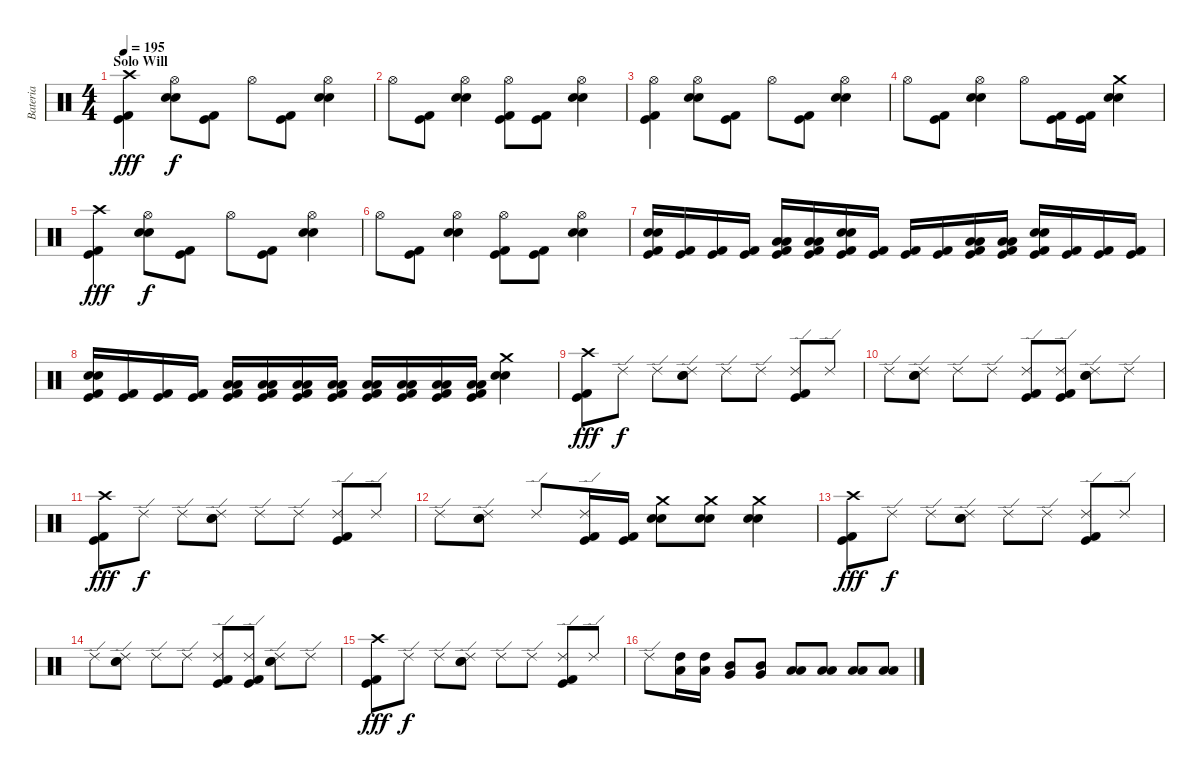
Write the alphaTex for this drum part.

\track ("Bateria" "Bateria") {instrument percussion}
\staff {score}
\articulation defaults
\ts (4 4)
\section ("" "Solo Will")
\tempo 195
\clef neutral
\ks c
("Crash high (hit)" "Kick (hit) 2" "Kick (hit)").4{dy fff} ("Hi-Hat (open)" "Electric Snare (hit)" "Snare (hit) 2").8{dy f} ("Kick (hit) 2" "Kick (hit)").8 "Hi-Hat (open)".8 ("Kick (hit) 2" "Kick (hit)").8 ("Hi-Hat (open)" "Electric Snare (hit)" "Snare (hit) 2").4 |
"Hi-Hat (open)".8 ("Kick (hit) 2" "Kick (hit)").8 ("Hi-Hat (open)" "Electric Snare (hit)" "Snare (hit) 2").4 ("Hi-Hat (open)" "Kick (hit) 2" "Kick (hit)").8 ("Kick (hit) 2" "Kick (hit)").8 ("Hi-Hat (open)" "Electric Snare (hit)" "Snare (hit) 2").4 |
("Hi-Hat (open)" "Kick (hit) 2" "Kick (hit)").4 ("Hi-Hat (open)" "Electric Snare (hit)" "Snare (hit) 2").8 ("Kick (hit) 2" "Kick (hit)").8 "Hi-Hat (open)".8 ("Kick (hit) 2" "Kick (hit)").8 ("Hi-Hat (open)" "Electric Snare (hit)" "Snare (hit) 2").4 |
"Hi-Hat (open)".8 ("Kick (hit) 2" "Kick (hit)").8 ("Hi-Hat (open)" "Electric Snare (hit)" "Snare (hit) 2").4 "Hi-Hat (open)".8 ("Kick (hit) 2" "Kick (hit)").16 ("Kick (hit) 2" "Kick (hit)").16 ("Crash medium (hit)" "Electric Snare (hit)" "Snare (hit) 2").4 |
("Crash high (hit)" "Kick (hit) 2" "Kick (hit)").4{dy fff} ("Hi-Hat (open)" "Electric Snare (hit)" "Snare (hit) 2").8{dy f} ("Kick (hit) 2" "Kick (hit)").8 "Hi-Hat (open)".8 ("Kick (hit) 2" "Kick (hit)").8 ("Hi-Hat (open)" "Electric Snare (hit)" "Snare (hit) 2").4 |
"Hi-Hat (open)".8 ("Kick (hit) 2" "Kick (hit)").8 ("Hi-Hat (open)" "Electric Snare (hit)" "Snare (hit) 2").4 ("Hi-Hat (open)" "Kick (hit) 2" "Kick (hit)").8 ("Kick (hit) 2" "Kick (hit)").8 ("Hi-Hat (open)" "Electric Snare (hit)" "Snare (hit) 2").4 |
("Electric Snare (hit)" "Snare (hit) 2" "Kick (hit) 2" "Kick (hit)").16 ("Kick (hit) 2" "Kick (hit)").16 ("Kick (hit) 2" "Kick (hit)").16 ("Kick (hit) 2" "Kick (hit)").16 ("Low Tom (hit)" "Low Floor Tom (hit)" "Kick (hit) 2" "Kick (hit)").16 ("Low Tom (hit)" "Low Floor Tom (hit)" "Kick (hit) 2" "Kick (hit)").16 ("Electric Snare (hit)" "Snare (hit) 2" "Kick (hit) 2" "Kick (hit)").16 ("Kick (hit) 2" "Kick (hit)").16 ("Kick (hit) 2" "Kick (hit)").16 ("Kick (hit) 2" "Kick (hit)").16 ("Low Tom (hit)" "Low Floor Tom (hit)" "Kick (hit) 2" "Kick (hit)").16 ("Low Tom (hit)" "Low Floor Tom (hit)" "Kick (hit) 2" "Kick (hit)").16 ("Electric Snare (hit)" "Snare (hit) 2" "Kick (hit) 2" "Kick (hit)").16 ("Kick (hit) 2" "Kick (hit)").16 ("Kick (hit) 2" "Kick (hit)").16 ("Kick (hit) 2" "Kick (hit)").16 |
("Electric Snare (hit)" "Snare (hit) 2" "Kick (hit) 2" "Kick (hit)").16 ("Kick (hit) 2" "Kick (hit)").16 ("Kick (hit) 2" "Kick (hit)").16 ("Kick (hit) 2" "Kick (hit)").16 ("Low Tom (hit)" "Low Floor Tom (hit)" "Kick (hit) 2" "Kick (hit)").16 ("Low Tom (hit)" "Low Floor Tom (hit)" "Kick (hit) 2" "Kick (hit)").16 ("Low Tom (hit)" "Low Floor Tom (hit)" "Kick (hit) 2" "Kick (hit)").16 ("Low Tom (hit)" "Low Floor Tom (hit)" "Kick (hit) 2" "Kick (hit)").16 ("Low Tom (hit)" "Low Floor Tom (hit)" "Kick (hit) 2" "Kick (hit)").16 ("Low Tom (hit)" "Low Floor Tom (hit)" "Kick (hit) 2" "Kick (hit)").16 ("Low Tom (hit)" "Low Floor Tom (hit)" "Kick (hit) 2" "Kick (hit)").16 ("Low Tom (hit)" "Low Floor Tom (hit)" "Kick (hit) 2" "Kick (hit)").16 ("Crash medium (hit)" "Electric Snare (hit)" "Snare (hit) 2").4 |
("Crash high (hit)" "Kick (hit) 2" "Kick (hit)").8{dy fff} "Ride (edge) 2".8{dy f} "Ride (edge) 2".8 ("Ride (edge) 2" "Electric Snare (hit)" "Snare (hit) 2").8 "Ride (edge) 2".8 "Ride (edge) 2".8 ("Ride (edge) 2" "Kick (hit) 2" "Kick (hit)").8 "Ride (edge) 2".8 |
"Ride (edge) 2".8 ("Ride (edge) 2" "Electric Snare (hit)" "Snare (hit) 2").8 "Ride (edge) 2".8 "Ride (edge) 2".8 ("Ride (edge) 2" "Kick (hit) 2" "Kick (hit)").8 ("Ride (edge) 2" "Kick (hit) 2" "Kick (hit)").8 ("Ride (edge) 2" "Electric Snare (hit)" "Snare (hit) 2").8 "Ride (edge) 2".8 |
("Crash high (hit)" "Kick (hit) 2" "Kick (hit)").8{dy fff} "Ride (edge) 2".8{dy f} "Ride (edge) 2".8 ("Ride (edge) 2" "Electric Snare (hit)" "Snare (hit) 2").8 "Ride (edge) 2".8 "Ride (edge) 2".8 ("Ride (edge) 2" "Kick (hit) 2" "Kick (hit)").8 "Ride (edge) 2".8 |
"Ride (edge) 2".8 ("Ride (edge) 2" "Electric Snare (hit)" "Snare (hit) 2").8 "Ride (edge) 2".8 ("Ride (edge) 2" "Kick (hit) 2" "Kick (hit)").16 ("Kick (hit) 2" "Kick (hit)").16 ("Crash medium (hit)" "Electric Snare (hit)" "Snare (hit) 2").8 ("Crash medium (hit)" "Electric Snare (hit)" "Snare (hit) 2").8 ("Crash medium (hit)" "Electric Snare (hit)" "Snare (hit) 2").4 |
("Crash high (hit)" "Kick (hit) 2" "Kick (hit)").8{dy fff} "Ride (edge) 2".8{dy f} "Ride (edge) 2".8 ("Ride (edge) 2" "Electric Snare (hit)" "Snare (hit) 2").8 "Ride (edge) 2".8 "Ride (edge) 2".8 ("Ride (edge) 2" "Kick (hit) 2" "Kick (hit)").8 "Ride (edge) 2".8 |
"Ride (edge) 2".8 ("Ride (edge) 2" "Electric Snare (hit)" "Snare (hit) 2").8 "Ride (edge) 2".8 "Ride (edge) 2".8 ("Ride (edge) 2" "Kick (hit) 2" "Kick (hit)").8 ("Ride (edge) 2" "Kick (hit) 2" "Kick (hit)").8 ("Ride (edge) 2" "Electric Snare (hit)" "Snare (hit) 2").8 "Ride (edge) 2".8 |
("Crash high (hit)" "Kick (hit) 2" "Kick (hit)").8{dy fff} "Ride (edge) 2".8{dy f} "Ride (edge) 2".8 ("Ride (edge) 2" "Electric Snare (hit)" "Snare (hit) 2").8 "Ride (edge) 2".8 "Ride (edge) 2".8 ("Ride (edge) 2" "Kick (hit) 2" "Kick (hit)").8 "Ride (edge) 2".8 |
"Ride (edge) 2".8 ("High Tom (hit)" "Low Tom (hit)").16 ("High Tom (hit)" "Low Tom (hit)").16 ("Mid Tom (hit)" "Very Low Tom (hit)").8 ("Mid Tom (hit)" "Very Low Tom (hit)").8 ("Low Tom (hit)" "Low Floor Tom (hit)").8 ("Low Tom (hit)" "Low Floor Tom (hit)").8 ("Low Tom (hit)" "Low Floor Tom (hit)").8 ("Low Tom (hit)" "Low Floor Tom (hit)").8
